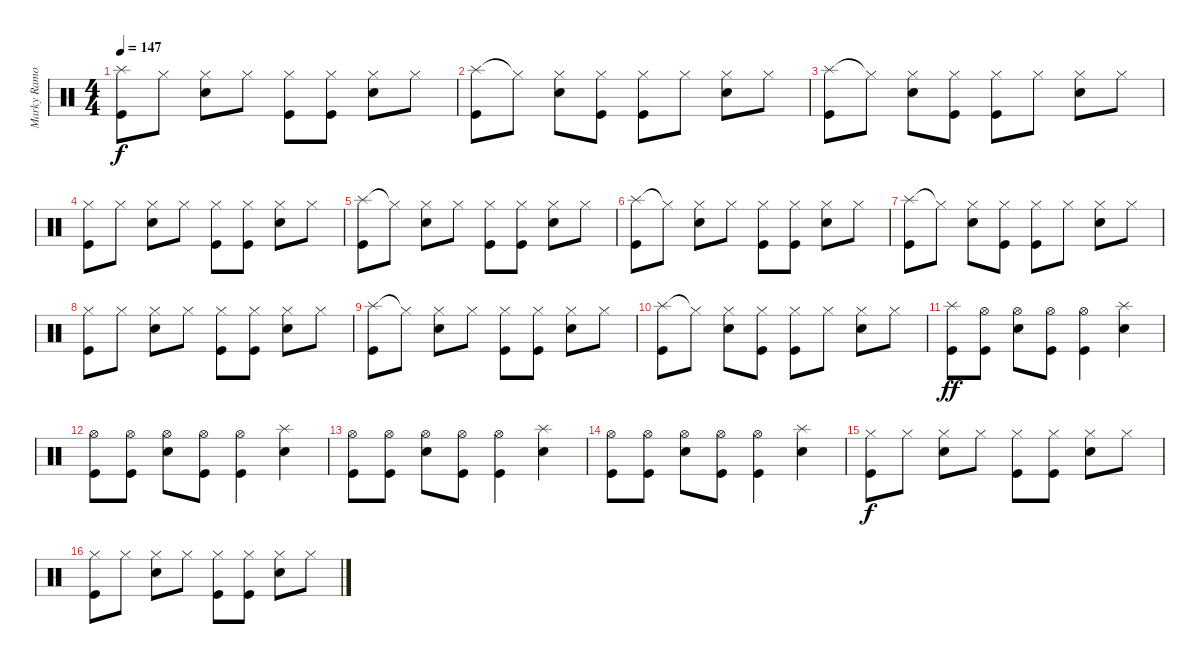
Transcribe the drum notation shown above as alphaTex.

\track ("Marky Ramone - Drums" "Marky Ramo") {instrument percussion}
\staff {score}
\articulation defaults
\ts (4 4)
\tempo 147
\clef neutral
\ks c
("Splash (hit)" "Kick (hit)").8{dy f} "Hi-Hat (closed)".8 ("Hi-Hat (closed)" "Snare (hit) 2").8 "Hi-Hat (closed)".8 ("Hi-Hat (closed)" "Kick (hit)").8 ("Hi-Hat (closed)" "Kick (hit)").8 ("Hi-Hat (closed)" "Snare (hit) 2").8 "Hi-Hat (closed)".8 |
("Splash (hit)" "Kick (hit)").8 "Hi-Hat (closed)"{t}.8 ("Hi-Hat (closed)" "Snare (hit) 2").8 ("Hi-Hat (closed)" "Kick (hit)").8 ("Hi-Hat (closed)" "Kick (hit)").8 "Hi-Hat (closed)".8 ("Hi-Hat (closed)" "Snare (hit) 2").8 "Hi-Hat (closed)".8 |
("Splash (hit)" "Kick (hit)").8 "Hi-Hat (closed)"{t}.8 ("Hi-Hat (closed)" "Snare (hit) 2").8 ("Hi-Hat (closed)" "Kick (hit)").8 ("Hi-Hat (closed)" "Kick (hit)").8 "Hi-Hat (closed)".8 ("Hi-Hat (closed)" "Snare (hit) 2").8 "Hi-Hat (closed)".8 |
("Hi-Hat (closed)" "Kick (hit)").8 "Hi-Hat (closed)".8 ("Hi-Hat (closed)" "Snare (hit) 2").8 "Hi-Hat (closed)".8 ("Hi-Hat (closed)" "Kick (hit)").8 ("Hi-Hat (closed)" "Kick (hit)").8 ("Hi-Hat (closed)" "Snare (hit) 2").8 "Hi-Hat (closed)".8 |
("Splash (hit)" "Kick (hit)").8 "Hi-Hat (closed)"{t}.8 ("Hi-Hat (closed)" "Snare (hit) 2").8 "Hi-Hat (closed)".8 ("Hi-Hat (closed)" "Kick (hit)").8 ("Hi-Hat (closed)" "Kick (hit)").8 ("Hi-Hat (closed)" "Snare (hit) 2").8 "Hi-Hat (closed)".8 |
("Splash (hit)" "Kick (hit)").8 "Hi-Hat (closed)"{t}.8 ("Hi-Hat (closed)" "Snare (hit) 2").8 "Hi-Hat (closed)".8 ("Hi-Hat (closed)" "Kick (hit)").8 ("Hi-Hat (closed)" "Kick (hit)").8 ("Hi-Hat (closed)" "Snare (hit) 2").8 "Hi-Hat (closed)".8 |
("Splash (hit)" "Kick (hit)").8 "Hi-Hat (closed)"{t}.8 ("Hi-Hat (closed)" "Snare (hit) 2").8 ("Hi-Hat (closed)" "Kick (hit)").8 ("Hi-Hat (closed)" "Kick (hit)").8 "Hi-Hat (closed)".8 ("Hi-Hat (closed)" "Snare (hit) 2").8 "Hi-Hat (closed)".8 |
("Hi-Hat (closed)" "Kick (hit)").8 "Hi-Hat (closed)".8 ("Hi-Hat (closed)" "Snare (hit) 2").8 "Hi-Hat (closed)".8 ("Hi-Hat (closed)" "Kick (hit)").8 ("Hi-Hat (closed)" "Kick (hit)").8 ("Hi-Hat (closed)" "Snare (hit) 2").8 "Hi-Hat (closed)".8 |
("Splash (hit)" "Kick (hit)").8 "Hi-Hat (closed)"{t}.8 ("Hi-Hat (closed)" "Snare (hit) 2").8 "Hi-Hat (closed)".8 ("Hi-Hat (closed)" "Kick (hit)").8 ("Hi-Hat (closed)" "Kick (hit)").8 ("Hi-Hat (closed)" "Snare (hit) 2").8 "Hi-Hat (closed)".8 |
("Splash (hit)" "Kick (hit)").8 "Hi-Hat (closed)"{t}.8 ("Hi-Hat (closed)" "Snare (hit) 2").8 ("Hi-Hat (closed)" "Kick (hit)").8 ("Hi-Hat (closed)" "Kick (hit)").8 "Hi-Hat (closed)".8 ("Hi-Hat (closed)" "Snare (hit) 2").8 "Hi-Hat (closed)".8 |
("Splash (hit)" "Kick (hit)").8{dy ff} ("Hi-Hat (open)" "Kick (hit)").8 ("Hi-Hat (open)" "Snare (hit) 2").8 ("Hi-Hat (open)" "Kick (hit)").8 ("Hi-Hat (open)" "Kick (hit)").4 ("Splash (hit)" "Snare (hit) 2").4 |
("Hi-Hat (open)" "Kick (hit)").8 ("Hi-Hat (open)" "Kick (hit)").8 ("Hi-Hat (open)" "Snare (hit) 2").8 ("Hi-Hat (open)" "Kick (hit)").8 ("Hi-Hat (open)" "Kick (hit)").4 ("Splash (hit)" "Snare (hit) 2").4 |
("Hi-Hat (open)" "Kick (hit)").8 ("Hi-Hat (open)" "Kick (hit)").8 ("Hi-Hat (open)" "Snare (hit) 2").8 ("Hi-Hat (open)" "Kick (hit)").8 ("Hi-Hat (open)" "Kick (hit)").4 ("Splash (hit)" "Snare (hit) 2").4 |
("Hi-Hat (open)" "Kick (hit)").8 ("Hi-Hat (open)" "Kick (hit)").8 ("Hi-Hat (open)" "Snare (hit) 2").8 ("Hi-Hat (open)" "Kick (hit)").8 ("Hi-Hat (open)" "Kick (hit)").4 ("Splash (hit)" "Snare (hit) 2").4 |
("Hi-Hat (closed)" "Kick (hit)").8{dy f} "Hi-Hat (closed)".8 ("Hi-Hat (closed)" "Snare (hit) 2").8 "Hi-Hat (closed)".8 ("Hi-Hat (closed)" "Kick (hit)").8 ("Hi-Hat (closed)" "Kick (hit)").8 ("Hi-Hat (closed)" "Snare (hit) 2").8 "Hi-Hat (closed)".8 |
("Hi-Hat (closed)" "Kick (hit)").8 "Hi-Hat (closed)".8 ("Hi-Hat (closed)" "Snare (hit) 2").8 "Hi-Hat (closed)".8 ("Hi-Hat (closed)" "Kick (hit)").8 ("Hi-Hat (closed)" "Kick (hit)").8 ("Hi-Hat (closed)" "Snare (hit) 2").8 "Hi-Hat (closed)".8
